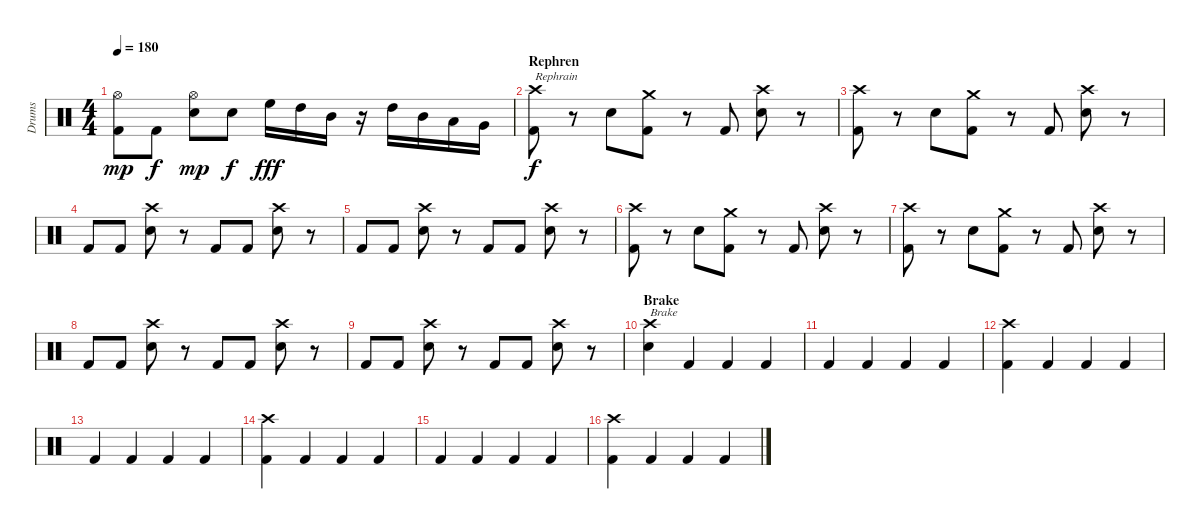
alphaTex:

\track ("Drums" "Drums") {instrument percussion}
\staff {score}
\articulation defaults
\ts (4 4)
\tempo 180
\clef neutral
\ks c
("Hi-Hat (open)" "Kick (hit) 2").8{dy mp} "Kick (hit) 2".8{dy f} ("Hi-Hat (open)" "Electric Snare (hit)").8{dy mp} "Snare (hit) 2".8{dy f} "High Floor Tom (hit)".16{dy fff} "High Tom (hit)".16 "Mid Tom (hit)".16 r.16 "High Tom (hit)".16 "Mid Tom (hit)".16 "Low Tom (hit)".16 "Very Low Tom (hit)".16 |
\section ("" "Rephren")
("Crash high (hit)" "Kick (hit) 2").8{txt "Rephrain" dy f} r.8 "Electric Snare (hit)".8 ("Crash medium (hit)" "Kick (hit) 2").8 r.8 "Kick (hit) 2".8 ("Crash high (hit)" "Electric Snare (hit)").8 r.8 |
("Crash high (hit)" "Kick (hit) 2").8 r.8 "Electric Snare (hit)".8 ("Crash medium (hit)" "Kick (hit) 2").8 r.8 "Kick (hit) 2".8 ("Crash high (hit)" "Electric Snare (hit)").8 r.8 |
"Kick (hit) 2".8 "Kick (hit) 2".8 ("Crash high (hit)" "Electric Snare (hit)").8 r.8 "Kick (hit) 2".8 "Kick (hit) 2".8 ("Crash high (hit)" "Electric Snare (hit)").8 r.8 |
"Kick (hit) 2".8 "Kick (hit) 2".8 ("Crash high (hit)" "Electric Snare (hit)").8 r.8 "Kick (hit) 2".8 "Kick (hit) 2".8 ("Crash high (hit)" "Electric Snare (hit)").8 r.8 |
("Crash high (hit)" "Kick (hit) 2").8 r.8 "Electric Snare (hit)".8 ("Crash medium (hit)" "Kick (hit) 2").8 r.8 "Kick (hit) 2".8 ("Crash high (hit)" "Electric Snare (hit)").8 r.8 |
("Crash high (hit)" "Kick (hit) 2").8 r.8 "Electric Snare (hit)".8 ("Crash medium (hit)" "Kick (hit) 2").8 r.8 "Kick (hit) 2".8 ("Crash high (hit)" "Electric Snare (hit)").8 r.8 |
"Kick (hit) 2".8 "Kick (hit) 2".8 ("Crash high (hit)" "Electric Snare (hit)").8 r.8 "Kick (hit) 2".8 "Kick (hit) 2".8 ("Crash high (hit)" "Electric Snare (hit)").8 r.8 |
"Kick (hit) 2".8 "Kick (hit) 2".8 ("Crash high (hit)" "Electric Snare (hit)").8 r.8 "Kick (hit) 2".8 "Kick (hit) 2".8 ("Crash high (hit)" "Electric Snare (hit)").8 r.8 |
\section ("" "Brake")
("Crash high (hit)" "Electric Snare (hit)").4{txt "Brake"} "Kick (hit) 2".4 "Kick (hit) 2".4 "Kick (hit) 2".4 |
"Kick (hit) 2".4 "Kick (hit) 2".4 "Kick (hit) 2".4 "Kick (hit) 2".4 |
("Crash high (hit)" "Kick (hit) 2").4 "Kick (hit) 2".4 "Kick (hit) 2".4 "Kick (hit) 2".4 |
"Kick (hit) 2".4 "Kick (hit) 2".4 "Kick (hit) 2".4 "Kick (hit) 2".4 |
("Crash high (hit)" "Kick (hit) 2").4 "Kick (hit) 2".4 "Kick (hit) 2".4 "Kick (hit) 2".4 |
"Kick (hit) 2".4 "Kick (hit) 2".4 "Kick (hit) 2".4 "Kick (hit) 2".4 |
("Crash high (hit)" "Kick (hit) 2").4 "Kick (hit) 2".4 "Kick (hit) 2".4 "Kick (hit) 2".4
